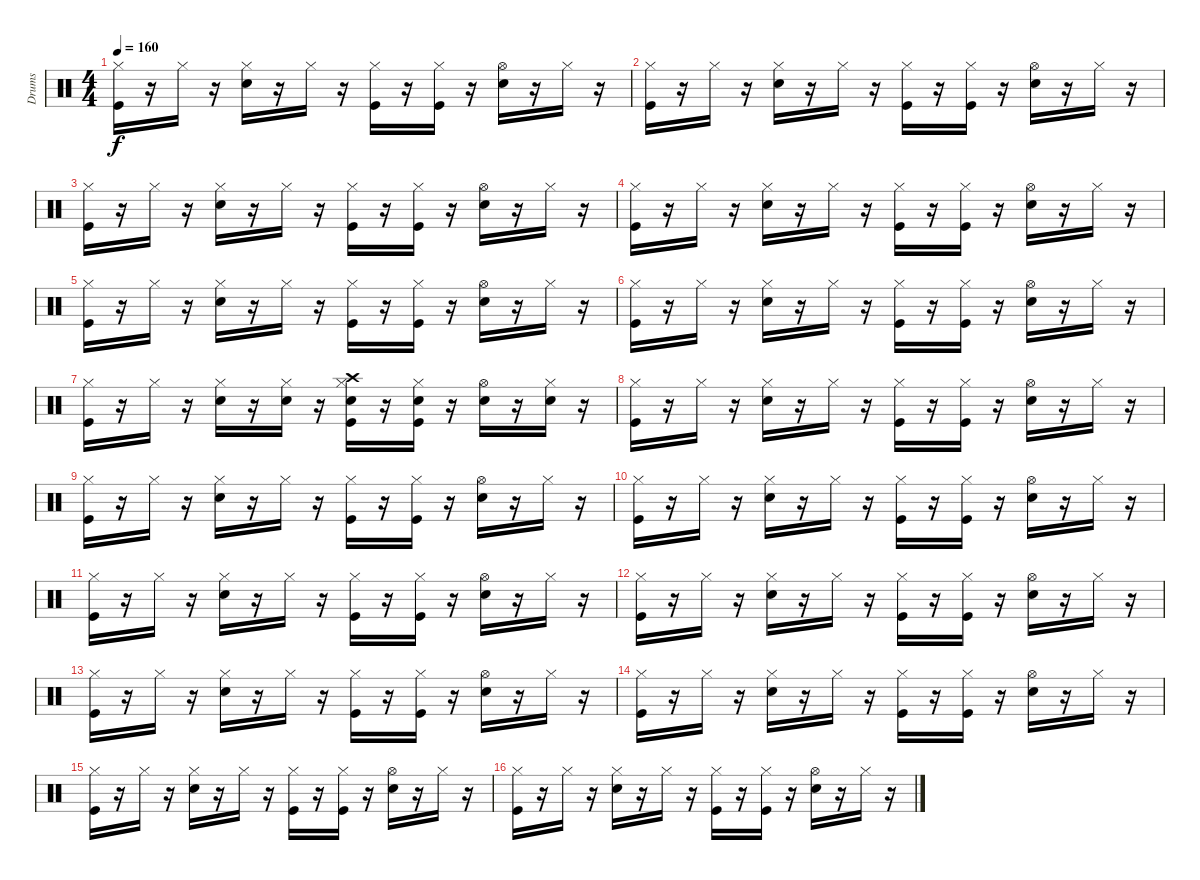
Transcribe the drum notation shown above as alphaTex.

\track ("Drums" "Drums") {instrument percussion}
\staff {score}
\articulation defaults
\ts (4 4)
\tempo 160
\clef neutral
\ks c
("Hi-Hat (closed)" "Kick (hit)").16{dy f} r.16 "Hi-Hat (closed)".16 r.16 ("Hi-Hat (closed)" "Snare (hit) 2").16 r.16 "Hi-Hat (closed)".16 r.16 ("Hi-Hat (closed)" "Kick (hit)").16 r.16 ("Kick (hit)" "Hi-Hat (closed)").16 r.16 ("Hi-Hat (open)" "Snare (hit) 2").16 r.16 "Hi-Hat (closed)".16 r.16 |
("Hi-Hat (closed)" "Kick (hit)").16 r.16 "Hi-Hat (closed)".16 r.16 ("Hi-Hat (closed)" "Snare (hit) 2").16 r.16 "Hi-Hat (closed)".16 r.16 ("Hi-Hat (closed)" "Kick (hit)").16 r.16 ("Kick (hit)" "Hi-Hat (closed)").16 r.16 ("Hi-Hat (open)" "Snare (hit) 2").16 r.16 "Hi-Hat (closed)".16 r.16 |
("Hi-Hat (closed)" "Kick (hit)").16 r.16 "Hi-Hat (closed)".16 r.16 ("Hi-Hat (closed)" "Snare (hit) 2").16 r.16 "Hi-Hat (closed)".16 r.16 ("Hi-Hat (closed)" "Kick (hit)").16 r.16 ("Kick (hit)" "Hi-Hat (closed)").16 r.16 ("Hi-Hat (open)" "Snare (hit) 2").16 r.16 "Hi-Hat (closed)".16 r.16 |
("Hi-Hat (closed)" "Kick (hit)").16 r.16 "Hi-Hat (closed)".16 r.16 ("Hi-Hat (closed)" "Snare (hit) 2").16 r.16 "Hi-Hat (closed)".16 r.16 ("Hi-Hat (closed)" "Kick (hit)").16 r.16 ("Kick (hit)" "Hi-Hat (closed)").16 r.16 ("Hi-Hat (open)" "Snare (hit) 2").16 r.16 "Hi-Hat (closed)".16 r.16 |
("Hi-Hat (closed)" "Kick (hit)").16 r.16 "Hi-Hat (closed)".16 r.16 ("Hi-Hat (closed)" "Snare (hit) 2").16 r.16 "Hi-Hat (closed)".16 r.16 ("Hi-Hat (closed)" "Kick (hit)").16 r.16 ("Kick (hit)" "Hi-Hat (closed)").16 r.16 ("Hi-Hat (open)" "Snare (hit) 2").16 r.16 "Hi-Hat (closed)".16 r.16 |
("Hi-Hat (closed)" "Kick (hit)").16 r.16 "Hi-Hat (closed)".16 r.16 ("Hi-Hat (closed)" "Snare (hit) 2").16 r.16 "Hi-Hat (closed)".16 r.16 ("Hi-Hat (closed)" "Kick (hit)").16 r.16 ("Kick (hit)" "Hi-Hat (closed)").16 r.16 ("Hi-Hat (open)" "Snare (hit) 2").16 r.16 "Hi-Hat (closed)".16 r.16 |
("Hi-Hat (closed)" "Kick (hit)").16 r.16 "Hi-Hat (closed)".16 r.16 ("Hi-Hat (closed)" "Snare (hit) 2").16 r.16 ("Snare (hit) 2" "Hi-Hat (closed)").16 r.16 ("Crash high (hit)" "Snare (hit) 2" "Hi-Hat (closed)" "Kick (hit)").16 r.16 ("Snare (hit) 2" "Kick (hit)" "Hi-Hat (closed)").16 r.16 ("Hi-Hat (open)" "Snare (hit) 2").16 r.16 ("Snare (hit) 2" "Hi-Hat (closed)").16 r.16 |
("Hi-Hat (closed)" "Kick (hit)").16 r.16 "Hi-Hat (closed)".16 r.16 ("Hi-Hat (closed)" "Snare (hit) 2").16 r.16 "Hi-Hat (closed)".16 r.16 ("Hi-Hat (closed)" "Kick (hit)").16 r.16 ("Kick (hit)" "Hi-Hat (closed)").16 r.16 ("Hi-Hat (open)" "Snare (hit) 2").16 r.16 "Hi-Hat (closed)".16 r.16 |
("Hi-Hat (closed)" "Kick (hit)").16 r.16 "Hi-Hat (closed)".16 r.16 ("Hi-Hat (closed)" "Snare (hit) 2").16 r.16 "Hi-Hat (closed)".16 r.16 ("Hi-Hat (closed)" "Kick (hit)").16 r.16 ("Kick (hit)" "Hi-Hat (closed)").16 r.16 ("Hi-Hat (open)" "Snare (hit) 2").16 r.16 "Hi-Hat (closed)".16 r.16 |
("Hi-Hat (closed)" "Kick (hit)").16 r.16 "Hi-Hat (closed)".16 r.16 ("Hi-Hat (closed)" "Snare (hit) 2").16 r.16 "Hi-Hat (closed)".16 r.16 ("Hi-Hat (closed)" "Kick (hit)").16 r.16 ("Kick (hit)" "Hi-Hat (closed)").16 r.16 ("Hi-Hat (open)" "Snare (hit) 2").16 r.16 "Hi-Hat (closed)".16 r.16 |
("Hi-Hat (closed)" "Kick (hit)").16 r.16 "Hi-Hat (closed)".16 r.16 ("Hi-Hat (closed)" "Snare (hit) 2").16 r.16 "Hi-Hat (closed)".16 r.16 ("Hi-Hat (closed)" "Kick (hit)").16 r.16 ("Kick (hit)" "Hi-Hat (closed)").16 r.16 ("Hi-Hat (open)" "Snare (hit) 2").16 r.16 "Hi-Hat (closed)".16 r.16 |
("Hi-Hat (closed)" "Kick (hit)").16 r.16 "Hi-Hat (closed)".16 r.16 ("Hi-Hat (closed)" "Snare (hit) 2").16 r.16 "Hi-Hat (closed)".16 r.16 ("Hi-Hat (closed)" "Kick (hit)").16 r.16 ("Kick (hit)" "Hi-Hat (closed)").16 r.16 ("Hi-Hat (open)" "Snare (hit) 2").16 r.16 "Hi-Hat (closed)".16 r.16 |
("Hi-Hat (closed)" "Kick (hit)").16 r.16 "Hi-Hat (closed)".16 r.16 ("Hi-Hat (closed)" "Snare (hit) 2").16 r.16 "Hi-Hat (closed)".16 r.16 ("Hi-Hat (closed)" "Kick (hit)").16 r.16 ("Kick (hit)" "Hi-Hat (closed)").16 r.16 ("Hi-Hat (open)" "Snare (hit) 2").16 r.16 "Hi-Hat (closed)".16 r.16 |
("Hi-Hat (closed)" "Kick (hit)").16 r.16 "Hi-Hat (closed)".16 r.16 ("Hi-Hat (closed)" "Snare (hit) 2").16 r.16 "Hi-Hat (closed)".16 r.16 ("Hi-Hat (closed)" "Kick (hit)").16 r.16 ("Kick (hit)" "Hi-Hat (closed)").16 r.16 ("Hi-Hat (open)" "Snare (hit) 2").16 r.16 "Hi-Hat (closed)".16 r.16 |
("Hi-Hat (closed)" "Kick (hit)").16 r.16 "Hi-Hat (closed)".16 r.16 ("Hi-Hat (closed)" "Snare (hit) 2").16 r.16 "Hi-Hat (closed)".16 r.16 ("Hi-Hat (closed)" "Kick (hit)").16 r.16 ("Kick (hit)" "Hi-Hat (closed)").16 r.16 ("Hi-Hat (open)" "Snare (hit) 2").16 r.16 "Hi-Hat (closed)".16 r.16 |
("Hi-Hat (closed)" "Kick (hit)").16 r.16 "Hi-Hat (closed)".16 r.16 ("Hi-Hat (closed)" "Snare (hit) 2").16 r.16 "Hi-Hat (closed)".16 r.16 ("Hi-Hat (closed)" "Kick (hit)").16 r.16 ("Kick (hit)" "Hi-Hat (closed)").16 r.16 ("Hi-Hat (open)" "Snare (hit) 2").16 r.16 "Hi-Hat (closed)".16 r.16
